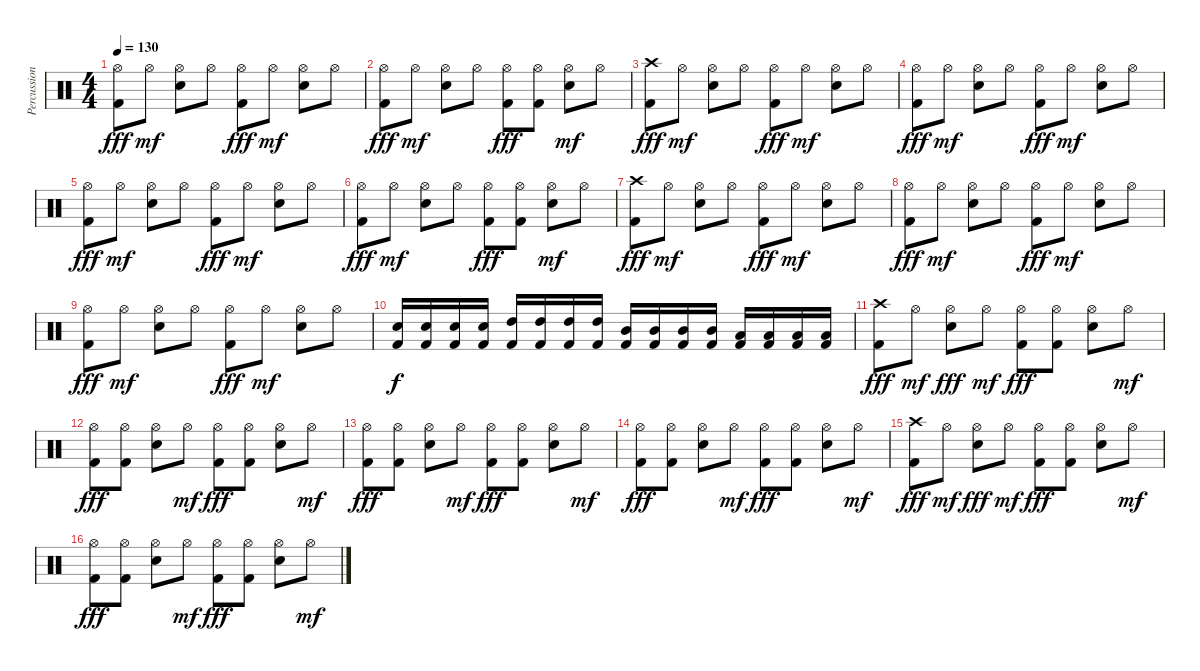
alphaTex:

\track ("Percussion" "Percussion") {instrument percussion}
\staff {score}
\articulation defaults
\ts (4 4)
\tempo 130
\clef neutral
\ks c
("Hi-Hat (open)" "Kick (hit) 2").8{dy fff} "Hi-Hat (open)".8{dy mf} ("Hi-Hat (open)" "Electric Snare (hit)").8 "Hi-Hat (open)".8 ("Hi-Hat (open)" "Kick (hit) 2").8{dy fff} "Hi-Hat (open)".8{dy mf} ("Hi-Hat (open)" "Electric Snare (hit)").8 "Hi-Hat (open)".8 |
("Hi-Hat (open)" "Kick (hit) 2").8{dy fff} "Hi-Hat (open)".8{dy mf} ("Hi-Hat (open)" "Electric Snare (hit)").8 "Hi-Hat (open)".8 ("Hi-Hat (open)" "Kick (hit) 2").8{dy fff} ("Hi-Hat (open)" "Kick (hit) 2").8 ("Hi-Hat (open)" "Electric Snare (hit)").8{dy mf} "Hi-Hat (open)".8 |
("Crash high (hit)" "Kick (hit) 2").8{dy fff} "Hi-Hat (open)".8{dy mf} ("Hi-Hat (open)" "Electric Snare (hit)").8 "Hi-Hat (open)".8 ("Hi-Hat (open)" "Kick (hit) 2").8{dy fff} "Hi-Hat (open)".8{dy mf} ("Hi-Hat (open)" "Electric Snare (hit)").8 "Hi-Hat (open)".8 |
("Hi-Hat (open)" "Kick (hit) 2").8{dy fff} "Hi-Hat (open)".8{dy mf} ("Hi-Hat (open)" "Electric Snare (hit)").8 "Hi-Hat (open)".8 ("Hi-Hat (open)" "Kick (hit) 2").8{dy fff} "Hi-Hat (open)".8{dy mf} ("Hi-Hat (open)" "Electric Snare (hit)").8 "Hi-Hat (open)".8 |
("Hi-Hat (open)" "Kick (hit) 2").8{dy fff} "Hi-Hat (open)".8{dy mf} ("Hi-Hat (open)" "Electric Snare (hit)").8 "Hi-Hat (open)".8 ("Hi-Hat (open)" "Kick (hit) 2").8{dy fff} "Hi-Hat (open)".8{dy mf} ("Hi-Hat (open)" "Electric Snare (hit)").8 "Hi-Hat (open)".8 |
("Hi-Hat (open)" "Kick (hit) 2").8{dy fff} "Hi-Hat (open)".8{dy mf} ("Hi-Hat (open)" "Electric Snare (hit)").8 "Hi-Hat (open)".8 ("Hi-Hat (open)" "Kick (hit) 2").8{dy fff} ("Hi-Hat (open)" "Kick (hit) 2").8 ("Hi-Hat (open)" "Electric Snare (hit)").8{dy mf} "Hi-Hat (open)".8 |
("Crash high (hit)" "Kick (hit) 2").8{dy fff} "Hi-Hat (open)".8{dy mf} ("Hi-Hat (open)" "Electric Snare (hit)").8 "Hi-Hat (open)".8 ("Hi-Hat (open)" "Kick (hit) 2").8{dy fff} "Hi-Hat (open)".8{dy mf} ("Hi-Hat (open)" "Electric Snare (hit)").8 "Hi-Hat (open)".8 |
("Hi-Hat (open)" "Kick (hit) 2").8{dy fff} "Hi-Hat (open)".8{dy mf} ("Hi-Hat (open)" "Electric Snare (hit)").8 "Hi-Hat (open)".8 ("Hi-Hat (open)" "Kick (hit) 2").8{dy fff} "Hi-Hat (open)".8{dy mf} ("Hi-Hat (open)" "Electric Snare (hit)").8 "Hi-Hat (open)".8 |
("Hi-Hat (open)" "Kick (hit) 2").8{dy fff} "Hi-Hat (open)".8{dy mf} ("Hi-Hat (open)" "Electric Snare (hit)").8 "Hi-Hat (open)".8 ("Hi-Hat (open)" "Kick (hit) 2").8{dy fff} "Hi-Hat (open)".8{dy mf} ("Hi-Hat (open)" "Electric Snare (hit)").8 "Hi-Hat (open)".8 |
("Electric Snare (hit)" "Kick (hit) 2").16{dy f} ("Electric Snare (hit)" "Kick (hit) 2").16 ("Electric Snare (hit)" "Kick (hit) 2").16 ("Electric Snare (hit)" "Kick (hit) 2").16 ("High Tom (hit)" "Kick (hit) 2").16 ("High Tom (hit)" "Kick (hit) 2").16 ("High Tom (hit)" "Kick (hit) 2").16 ("High Tom (hit)" "Kick (hit) 2").16 ("Mid Tom (hit)" "Kick (hit) 2").16 ("Mid Tom (hit)" "Kick (hit) 2").16 ("Mid Tom (hit)" "Kick (hit) 2").16 ("Mid Tom (hit)" "Kick (hit) 2").16 ("Low Tom (hit)" "Kick (hit) 2").16 ("Low Tom (hit)" "Kick (hit) 2").16 ("Low Tom (hit)" "Kick (hit) 2").16 ("Low Tom (hit)" "Kick (hit) 2").16 |
("Crash high (hit)" "Kick (hit) 2").8{dy fff} "Hi-Hat (open)".8{dy mf} ("Hi-Hat (open)" "Electric Snare (hit)").8{dy fff} "Hi-Hat (open)".8{dy mf} ("Hi-Hat (open)" "Kick (hit) 2").8{dy fff} ("Hi-Hat (open)" "Kick (hit) 2").8 ("Hi-Hat (open)" "Electric Snare (hit)").8 "Hi-Hat (open)".8{dy mf} |
("Hi-Hat (open)" "Kick (hit) 2").8{dy fff} ("Hi-Hat (open)" "Kick (hit) 2").8 ("Hi-Hat (open)" "Electric Snare (hit)").8 "Hi-Hat (open)".8{dy mf} ("Hi-Hat (open)" "Kick (hit) 2").8{dy fff} ("Hi-Hat (open)" "Kick (hit) 2").8 ("Hi-Hat (open)" "Electric Snare (hit)").8 "Hi-Hat (open)".8{dy mf} |
("Hi-Hat (open)" "Kick (hit) 2").8{dy fff} ("Hi-Hat (open)" "Kick (hit) 2").8 ("Hi-Hat (open)" "Electric Snare (hit)").8 "Hi-Hat (open)".8{dy mf} ("Hi-Hat (open)" "Kick (hit) 2").8{dy fff} ("Hi-Hat (open)" "Kick (hit) 2").8 ("Hi-Hat (open)" "Electric Snare (hit)").8 "Hi-Hat (open)".8{dy mf} |
("Hi-Hat (open)" "Kick (hit) 2").8{dy fff} ("Hi-Hat (open)" "Kick (hit) 2").8 ("Hi-Hat (open)" "Electric Snare (hit)").8 "Hi-Hat (open)".8{dy mf} ("Hi-Hat (open)" "Kick (hit) 2").8{dy fff} ("Hi-Hat (open)" "Kick (hit) 2").8 ("Hi-Hat (open)" "Electric Snare (hit)").8 "Hi-Hat (open)".8{dy mf} |
("Crash high (hit)" "Kick (hit) 2").8{dy fff} "Hi-Hat (open)".8{dy mf} ("Hi-Hat (open)" "Electric Snare (hit)").8{dy fff} "Hi-Hat (open)".8{dy mf} ("Hi-Hat (open)" "Kick (hit) 2").8{dy fff} ("Hi-Hat (open)" "Kick (hit) 2").8 ("Hi-Hat (open)" "Electric Snare (hit)").8 "Hi-Hat (open)".8{dy mf} |
("Hi-Hat (open)" "Kick (hit) 2").8{dy fff} ("Hi-Hat (open)" "Kick (hit) 2").8 ("Hi-Hat (open)" "Electric Snare (hit)").8 "Hi-Hat (open)".8{dy mf} ("Hi-Hat (open)" "Kick (hit) 2").8{dy fff} ("Hi-Hat (open)" "Kick (hit) 2").8 ("Hi-Hat (open)" "Electric Snare (hit)").8 "Hi-Hat (open)".8{dy mf}
